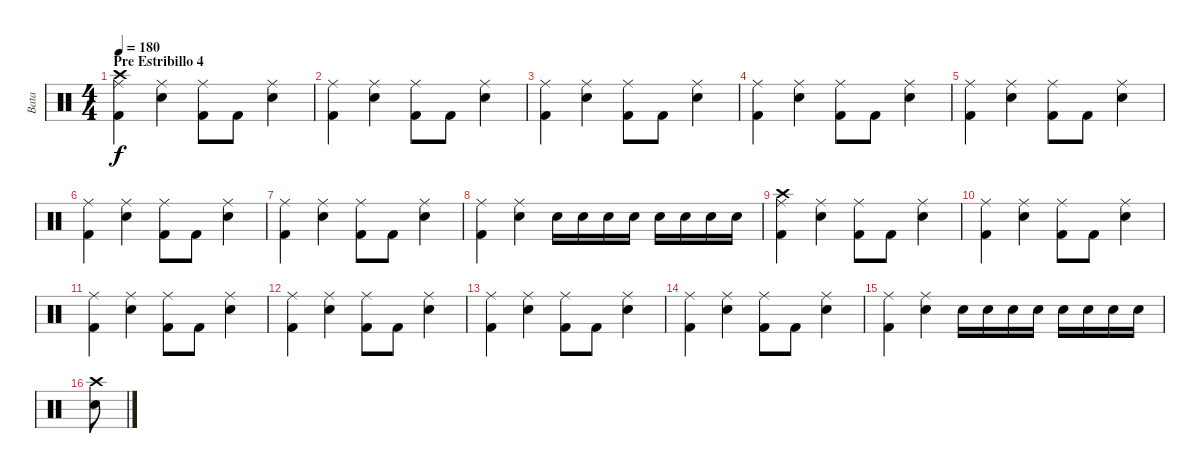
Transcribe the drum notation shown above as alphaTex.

\track ("Bata" "Bata") {instrument percussion}
\staff {score}
\articulation defaults
\ts (4 4)
\section ("" "Pre Estribillo 4")
\tempo 180
\clef neutral
\ks c
("Ride (middle)" "Crash high (hit)" "Kick (hit) 2").4{dy f} ("Ride (middle)" "Snare (hit) 2").4 ("Ride (middle)" "Kick (hit) 2").8 "Kick (hit) 2".8 ("Ride (middle)" "Snare (hit) 2").4 |
("Ride (middle)" "Kick (hit) 2").4 ("Ride (middle)" "Snare (hit) 2").4 ("Ride (middle)" "Kick (hit) 2").8 "Kick (hit) 2".8 ("Ride (middle)" "Snare (hit) 2").4 |
("Ride (middle)" "Kick (hit) 2").4 ("Ride (middle)" "Snare (hit) 2").4 ("Ride (middle)" "Kick (hit) 2").8 "Kick (hit) 2".8 ("Ride (middle)" "Snare (hit) 2").4 |
("Ride (middle)" "Kick (hit) 2").4 ("Ride (middle)" "Snare (hit) 2").4 ("Ride (middle)" "Kick (hit) 2").8 "Kick (hit) 2".8 ("Ride (middle)" "Snare (hit) 2").4 |
("Ride (middle)" "Kick (hit) 2").4 ("Ride (middle)" "Snare (hit) 2").4 ("Ride (middle)" "Kick (hit) 2").8 "Kick (hit) 2".8 ("Ride (middle)" "Snare (hit) 2").4 |
("Ride (middle)" "Kick (hit) 2").4 ("Ride (middle)" "Snare (hit) 2").4 ("Ride (middle)" "Kick (hit) 2").8 "Kick (hit) 2".8 ("Ride (middle)" "Snare (hit) 2").4 |
("Ride (middle)" "Kick (hit) 2").4 ("Ride (middle)" "Snare (hit) 2").4 ("Ride (middle)" "Kick (hit) 2").8 "Kick (hit) 2".8 ("Ride (middle)" "Snare (hit) 2").4 |
("Ride (middle)" "Kick (hit) 2").4 ("Ride (middle)" "Snare (hit) 2").4 "Electric Snare (hit)".16 "Electric Snare (hit)".16 "Electric Snare (hit)".16 "Electric Snare (hit)".16 "Electric Snare (hit)".16 "Electric Snare (hit)".16 "Electric Snare (hit)".16 "Electric Snare (hit)".16 |
("Ride (middle)" "Crash high (hit)" "Kick (hit) 2").4 ("Ride (middle)" "Snare (hit) 2").4 ("Ride (middle)" "Kick (hit) 2").8 "Kick (hit) 2".8 ("Ride (middle)" "Snare (hit) 2").4 |
("Ride (middle)" "Kick (hit) 2").4 ("Ride (middle)" "Snare (hit) 2").4 ("Ride (middle)" "Kick (hit) 2").8 "Kick (hit) 2".8 ("Ride (middle)" "Snare (hit) 2").4 |
("Ride (middle)" "Kick (hit) 2").4 ("Ride (middle)" "Snare (hit) 2").4 ("Ride (middle)" "Kick (hit) 2").8 "Kick (hit) 2".8 ("Ride (middle)" "Snare (hit) 2").4 |
("Ride (middle)" "Kick (hit) 2").4 ("Ride (middle)" "Snare (hit) 2").4 ("Ride (middle)" "Kick (hit) 2").8 "Kick (hit) 2".8 ("Ride (middle)" "Snare (hit) 2").4 |
("Ride (middle)" "Kick (hit) 2").4 ("Ride (middle)" "Snare (hit) 2").4 ("Ride (middle)" "Kick (hit) 2").8 "Kick (hit) 2".8 ("Ride (middle)" "Snare (hit) 2").4 |
("Ride (middle)" "Kick (hit) 2").4 ("Ride (middle)" "Snare (hit) 2").4 ("Ride (middle)" "Kick (hit) 2").8 "Kick (hit) 2".8 ("Ride (middle)" "Snare (hit) 2").4 |
("Ride (middle)" "Kick (hit) 2").4 ("Ride (middle)" "Snare (hit) 2").4 "Snare (hit) 2".16 "Snare (hit) 2".16 "Snare (hit) 2".16 "Snare (hit) 2".16 "Snare (hit) 2".16 "Snare (hit) 2".16 "Snare (hit) 2".16 "Snare (hit) 2".16 |
("Crash high (hit)" "Snare (hit) 2").8
